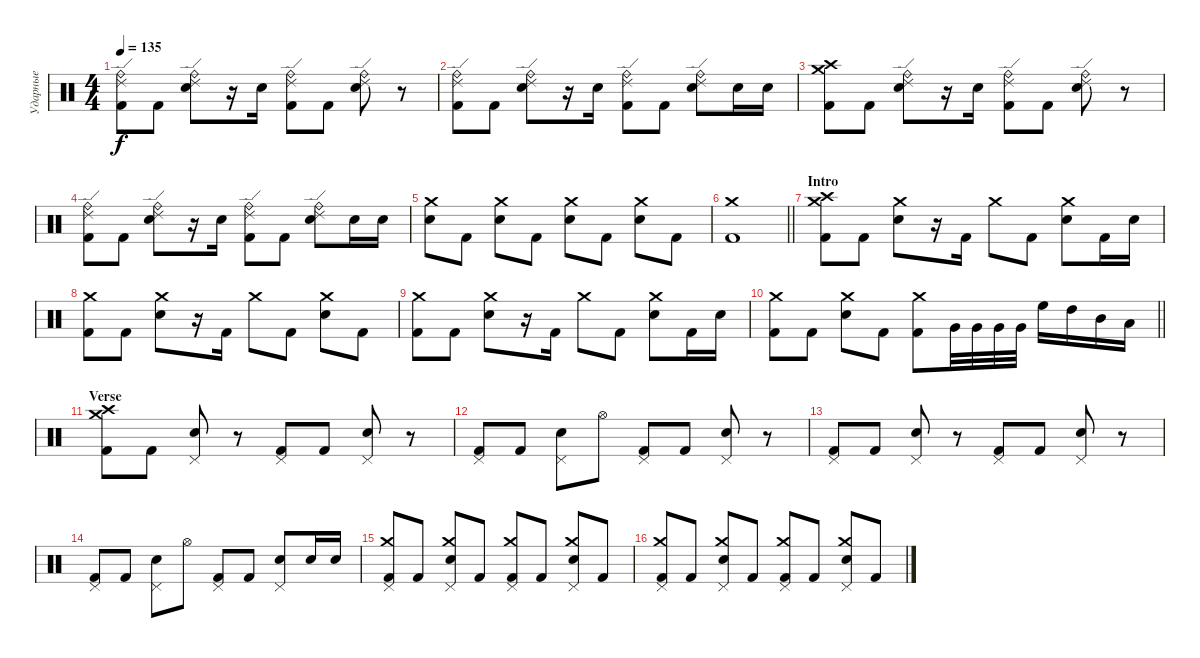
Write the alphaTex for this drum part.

\track ("Ударные" "Ударные") {instrument percussion}
\staff {score}
\articulation defaults
\ts (4 4)
\tempo 135
\clef neutral
\ks c
("Ride (bell)" "Ride (edge) 2" "Kick (hit) 2").8{dy f} "Kick (hit) 2".8 ("Ride (bell)" "Ride (edge) 2" "Electric Snare (hit)").8 r.16 "Electric Snare (hit)".16 ("Ride (bell)" "Ride (edge) 2" "Kick (hit) 2").8 "Kick (hit) 2".8 ("Ride (bell)" "Ride (edge) 2" "Electric Snare (hit)").8 r.8 |
("Ride (bell)" "Ride (edge) 2" "Kick (hit) 2").8 "Kick (hit) 2".8 ("Ride (bell)" "Ride (edge) 2" "Electric Snare (hit)").8 r.16 "Electric Snare (hit)".16 ("Ride (bell)" "Ride (edge) 2" "Kick (hit) 2").8 "Kick (hit) 2".8 ("Ride (bell)" "Ride (edge) 2" "Electric Snare (hit)").8 "Electric Snare (hit)".16 "Electric Snare (hit)".16 |
("Crash medium (hit)" "Crash high (hit)" "Kick (hit) 2").8 "Kick (hit) 2".8 ("Ride (bell)" "Ride (edge) 2" "Electric Snare (hit)").8 r.16 "Electric Snare (hit)".16 ("Ride (bell)" "Ride (edge) 2" "Kick (hit) 2").8 "Kick (hit) 2".8 ("Ride (bell)" "Ride (edge) 2" "Electric Snare (hit)").8 r.8 |
("Ride (bell)" "Ride (edge) 2" "Kick (hit) 2").8 "Kick (hit) 2".8 ("Ride (bell)" "Ride (edge) 2" "Electric Snare (hit)").8 r.16 "Electric Snare (hit)".16 ("Ride (bell)" "Ride (edge) 2" "Kick (hit) 2").8 "Kick (hit) 2".8 ("Ride (bell)" "Ride (edge) 2" "Electric Snare (hit)").8 "Electric Snare (hit)".16 "Electric Snare (hit)".16 |
("Crash medium (hit)" "Electric Snare (hit)").8 "Kick (hit) 2".8 ("Crash medium (hit)" "Electric Snare (hit)").8 "Kick (hit) 2".8 ("Crash medium (hit)" "Electric Snare (hit)").8 "Kick (hit) 2".8 ("Crash medium (hit)" "Electric Snare (hit)").8 "Kick (hit) 2".8 |
\barLineRight lightlight
("Crash medium (hit)" "Kick (hit) 2").1 |
\section ("" "Intro")
("Crash high (hit)" "Crash medium (hit)" "Kick (hit) 2").8 "Kick (hit) 2".8 ("Crash medium (hit)" "Electric Snare (hit)").8 r.16 "Kick (hit) 2".16 "Crash medium (hit)".8 "Kick (hit) 2".8 ("Crash medium (hit)" "Electric Snare (hit)").8 "Kick (hit) 2".16 "Electric Snare (hit)".16 |
("Crash medium (hit)" "Kick (hit) 2").8 "Kick (hit) 2".8 ("Crash medium (hit)" "Electric Snare (hit)").8 r.16 "Kick (hit) 2".16 "Crash medium (hit)".8 "Kick (hit) 2".8 ("Crash medium (hit)" "Electric Snare (hit)").8 "Kick (hit) 2".8 |
("Crash medium (hit)" "Kick (hit) 2").8 "Kick (hit) 2".8 ("Crash medium (hit)" "Electric Snare (hit)").8 r.16 "Kick (hit) 2".16 "Crash medium (hit)".8 "Kick (hit) 2".8 ("Crash medium (hit)" "Electric Snare (hit)").8 "Kick (hit) 2".16 "Electric Snare (hit)".16 |
\barLineRight lightlight
("Crash medium (hit)" "Kick (hit) 2").8 "Kick (hit) 2".8 ("Crash medium (hit)" "Electric Snare (hit)").8 "Kick (hit) 2".8 ("Crash medium (hit)" "Kick (hit) 2").8 "Very Low Tom (hit)".32 "Very Low Tom (hit)".32 "Very Low Tom (hit)".32 "Very Low Tom (hit)".32 "High Floor Tom (hit)".16 "High Tom (hit)".16 "Mid Tom (hit)".16 "Low Tom (hit)".16 |
\section ("" "Verse")
("Crash high (hit)" "Crash medium (hit)" "Kick (hit) 2").8 "Kick (hit) 2".8 ("Pedal Hi-Hat (hit)" "Electric Snare (hit)").8 r.8 ("Pedal Hi-Hat (hit)" "Kick (hit) 2").8 "Kick (hit) 2".8 ("Pedal Hi-Hat (hit)" "Electric Snare (hit)").8 r.8 |
("Pedal Hi-Hat (hit)" "Kick (hit) 2").8 "Kick (hit) 2".8 ("Pedal Hi-Hat (hit)" "Electric Snare (hit)").8 "Hi-Hat (open)".8 ("Pedal Hi-Hat (hit)" "Kick (hit) 2").8 "Kick (hit) 2".8 ("Pedal Hi-Hat (hit)" "Electric Snare (hit)").8 r.8 |
("Pedal Hi-Hat (hit)" "Kick (hit) 2").8 "Kick (hit) 2".8 ("Pedal Hi-Hat (hit)" "Electric Snare (hit)").8 r.8 ("Pedal Hi-Hat (hit)" "Kick (hit) 2").8 "Kick (hit) 2".8 ("Pedal Hi-Hat (hit)" "Electric Snare (hit)").8 r.8 |
("Pedal Hi-Hat (hit)" "Kick (hit) 2").8 "Kick (hit) 2".8 ("Pedal Hi-Hat (hit)" "Electric Snare (hit)").8 "Hi-Hat (open)".8 ("Pedal Hi-Hat (hit)" "Kick (hit) 2").8 "Kick (hit) 2".8 ("Pedal Hi-Hat (hit)" "Electric Snare (hit)").8 "Electric Snare (hit)".16 "Electric Snare (hit)".16 |
("Crash medium (hit)" "Pedal Hi-Hat (hit)" "Kick (hit) 2").8 "Kick (hit) 2".8 ("Crash medium (hit)" "Pedal Hi-Hat (hit)" "Electric Snare (hit)").8 "Kick (hit) 2".8 ("Crash medium (hit)" "Pedal Hi-Hat (hit)" "Kick (hit) 2").8 "Kick (hit) 2".8 ("Crash medium (hit)" "Pedal Hi-Hat (hit)" "Electric Snare (hit)").8 "Kick (hit) 2".8 |
("Crash medium (hit)" "Pedal Hi-Hat (hit)" "Kick (hit) 2").8 "Kick (hit) 2".8 ("Crash medium (hit)" "Pedal Hi-Hat (hit)" "Electric Snare (hit)").8 "Kick (hit) 2".8 ("Crash medium (hit)" "Pedal Hi-Hat (hit)" "Kick (hit) 2").8 "Kick (hit) 2".8 ("Crash medium (hit)" "Pedal Hi-Hat (hit)" "Electric Snare (hit)").8 "Kick (hit) 2".8
